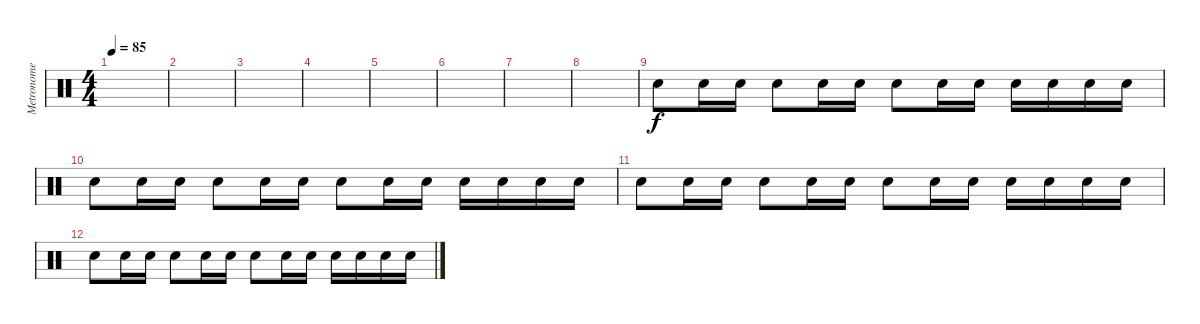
\track ("Metronome Bell" "Metronome ") {instrument percussion}
\staff {score}
\articulation defaults
\ts (4 4)
\tempo 85
\clef neutral
\ks c
|
|
|
|
|
|
|
|
"Metronome (bell)".8 "Metronome (bell)".16 "Metronome (bell)".16 "Metronome (bell)".8 "Metronome (bell)".16 "Metronome (bell)".16 "Metronome (bell)".8 "Metronome (bell)".16 "Metronome (bell)".16 "Metronome (bell)".16 "Metronome (bell)".16 "Metronome (bell)".16 "Metronome (bell)".16 |
"Metronome (bell)".8 "Metronome (bell)".16 "Metronome (bell)".16 "Metronome (bell)".8 "Metronome (bell)".16 "Metronome (bell)".16 "Metronome (bell)".8 "Metronome (bell)".16 "Metronome (bell)".16 "Metronome (bell)".16 "Metronome (bell)".16 "Metronome (bell)".16 "Metronome (bell)".16 |
"Metronome (bell)".8 "Metronome (bell)".16 "Metronome (bell)".16 "Metronome (bell)".8 "Metronome (bell)".16 "Metronome (bell)".16 "Metronome (bell)".8 "Metronome (bell)".16 "Metronome (bell)".16 "Metronome (bell)".16 "Metronome (bell)".16 "Metronome (bell)".16 "Metronome (bell)".16 |
"Metronome (bell)".8 "Metronome (bell)".16 "Metronome (bell)".16 "Metronome (bell)".8 "Metronome (bell)".16 "Metronome (bell)".16 "Metronome (bell)".8 "Metronome (bell)".16 "Metronome (bell)".16 "Metronome (bell)".16 "Metronome (bell)".16 "Metronome (bell)".16 "Metronome (bell)".16
